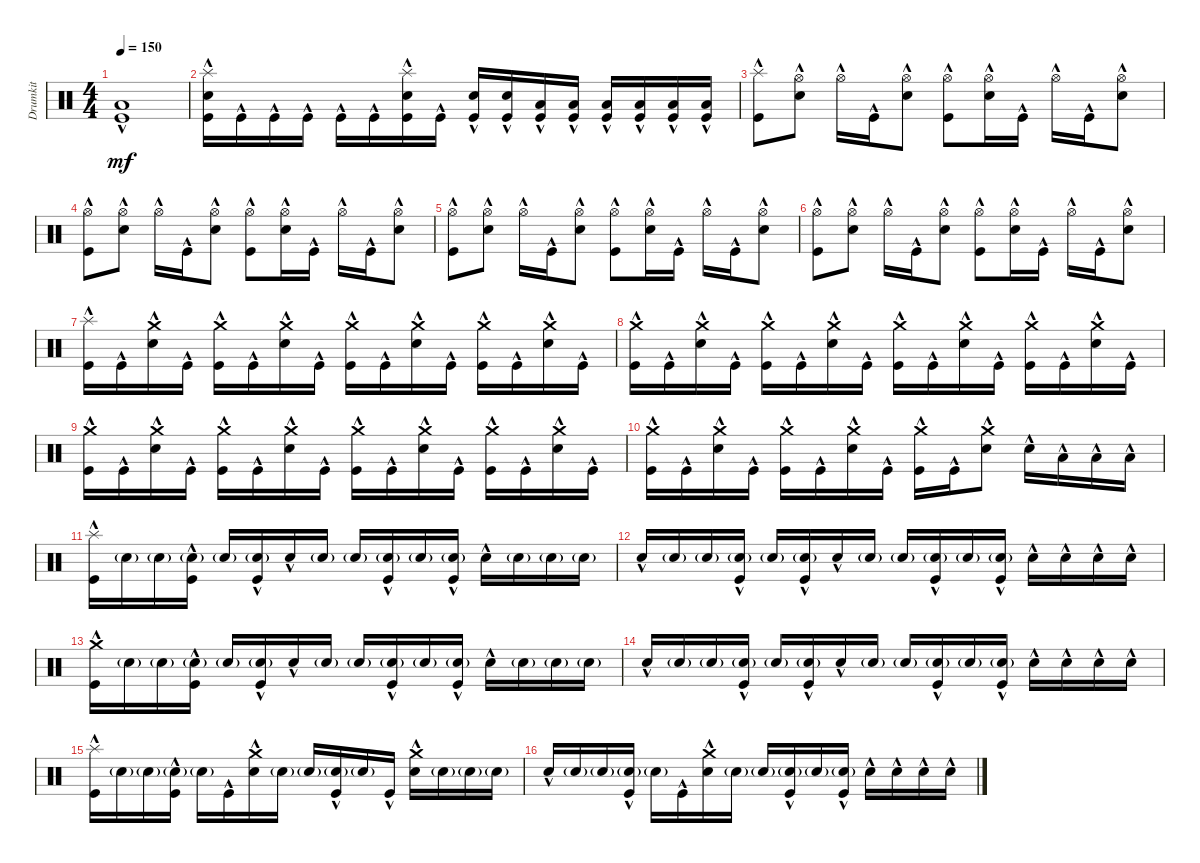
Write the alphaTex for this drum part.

\track ("Drumkit" "Drumkit") {instrument percussion}
\staff {score}
\articulation defaults
\ts (4 4)
\tempo 150
\clef neutral
\ks c
("Kick (hit)"{hac} "Low Floor Tom (hit)"{hac}).1{dy mf} |
("Kick (hit)"{hac} "Snare (hit) 2"{hac} "Splash (hit)"{hac}).16 "Kick (hit)"{hac}.16 "Kick (hit)"{hac}.16 "Kick (hit)"{hac}.16 "Kick (hit)"{hac}.16 "Kick (hit)"{hac}.16 ("Kick (hit)"{hac} "Snare (hit) 2"{hac} "Splash (hit)"{hac}).16 "Kick (hit)"{hac}.16 ("Kick (hit)"{hac} "Snare (hit) 2"{hac}).16 ("Kick (hit)"{hac} "Snare (hit) 2"{hac}).16 ("Kick (hit)"{hac} "Low Tom (hit)"{hac}).16 ("Kick (hit)"{hac} "Low Tom (hit)"{hac}).16 ("Kick (hit)"{hac} "Low Tom (hit)"{hac}).16 ("Kick (hit)"{hac} "Low Tom (hit)"{hac}).16 ("Kick (hit)"{hac} "Low Tom (hit)"{hac}).16 ("Kick (hit)"{hac} "Low Tom (hit)"{hac}).16 |
("Kick (hit)"{hac} "Splash (hit)"{hac}).8 ("Snare (hit) 2"{hac} "Hi-Hat (open)"{hac}).8 "Hi-Hat (open)"{hac}.16 "Kick (hit)"{hac}.16 ("Snare (hit) 2"{hac} "Hi-Hat (open)"{hac}).8 ("Kick (hit)"{hac} "Hi-Hat (open)"{hac}).8 ("Snare (hit) 2"{hac} "Hi-Hat (open)"{hac}).16 "Kick (hit)"{hac}.16 "Hi-Hat (open)"{hac}.16 "Kick (hit)"{hac}.16 ("Snare (hit) 2"{hac} "Hi-Hat (open)"{hac}).8 |
("Kick (hit)"{hac} "Hi-Hat (open)"{hac}).8 ("Snare (hit) 2"{hac} "Hi-Hat (open)"{hac}).8 "Hi-Hat (open)"{hac}.16 "Kick (hit)"{hac}.16 ("Snare (hit) 2"{hac} "Hi-Hat (open)"{hac}).8 ("Kick (hit)"{hac} "Hi-Hat (open)"{hac}).8 ("Snare (hit) 2"{hac} "Hi-Hat (open)"{hac}).16 "Kick (hit)"{hac}.16 "Hi-Hat (open)"{hac}.16 "Kick (hit)"{hac}.16 ("Snare (hit) 2"{hac} "Hi-Hat (open)"{hac}).8 |
("Kick (hit)"{hac} "Hi-Hat (open)"{hac}).8 ("Snare (hit) 2"{hac} "Hi-Hat (open)"{hac}).8 "Hi-Hat (open)"{hac}.16 "Kick (hit)"{hac}.16 ("Snare (hit) 2"{hac} "Hi-Hat (open)"{hac}).8 ("Kick (hit)"{hac} "Hi-Hat (open)"{hac}).8 ("Snare (hit) 2"{hac} "Hi-Hat (open)"{hac}).16 "Kick (hit)"{hac}.16 "Hi-Hat (open)"{hac}.16 "Kick (hit)"{hac}.16 ("Snare (hit) 2"{hac} "Hi-Hat (open)"{hac}).8 |
("Kick (hit)"{hac} "Hi-Hat (open)"{hac}).8 ("Snare (hit) 2"{hac} "Hi-Hat (open)"{hac}).8 "Hi-Hat (open)"{hac}.16 "Kick (hit)"{hac}.16 ("Snare (hit) 2"{hac} "Hi-Hat (open)"{hac}).8 ("Kick (hit)"{hac} "Hi-Hat (open)"{hac}).8 ("Snare (hit) 2"{hac} "Hi-Hat (open)"{hac}).16 "Kick (hit)"{hac}.16 "Hi-Hat (open)"{hac}.16 "Kick (hit)"{hac}.16 ("Snare (hit) 2"{hac} "Hi-Hat (open)"{hac}).8 |
("Kick (hit)"{hac} "Splash (hit)"{hac}).16 "Kick (hit)"{hac}.16 ("Snare (hit) 2"{hac} "Crash medium (hit)").16 "Kick (hit)"{hac}.16 ("Kick (hit)"{hac} "Crash medium (hit)").16 "Kick (hit)"{hac}.16 ("Snare (hit) 2"{hac} "Crash medium (hit)").16 "Kick (hit)"{hac}.16 ("Kick (hit)"{hac} "Crash medium (hit)").16 "Kick (hit)"{hac}.16 ("Snare (hit) 2"{hac} "Crash medium (hit)").16 "Kick (hit)"{hac}.16 ("Kick (hit)"{hac} "Crash medium (hit)").16 "Kick (hit)"{hac}.16 ("Snare (hit) 2"{hac} "Crash medium (hit)").16 "Kick (hit)"{hac}.16 |
("Kick (hit)"{hac} "Crash medium (hit)").16 "Kick (hit)"{hac}.16 ("Snare (hit) 2"{hac} "Crash medium (hit)").16 "Kick (hit)"{hac}.16 ("Kick (hit)"{hac} "Crash medium (hit)").16 "Kick (hit)"{hac}.16 ("Snare (hit) 2"{hac} "Crash medium (hit)").16 "Kick (hit)"{hac}.16 ("Kick (hit)"{hac} "Crash medium (hit)").16 "Kick (hit)"{hac}.16 ("Snare (hit) 2"{hac} "Crash medium (hit)").16 "Kick (hit)"{hac}.16 ("Kick (hit)"{hac} "Crash medium (hit)").16 "Kick (hit)"{hac}.16 ("Snare (hit) 2"{hac} "Crash medium (hit)").16 "Kick (hit)"{hac}.16 |
("Kick (hit)"{hac} "Crash medium (hit)").16 "Kick (hit)"{hac}.16 ("Snare (hit) 2"{hac} "Crash medium (hit)").16 "Kick (hit)"{hac}.16 ("Kick (hit)"{hac} "Crash medium (hit)").16 "Kick (hit)"{hac}.16 ("Snare (hit) 2"{hac} "Crash medium (hit)").16 "Kick (hit)"{hac}.16 ("Kick (hit)"{hac} "Crash medium (hit)").16 "Kick (hit)"{hac}.16 ("Snare (hit) 2"{hac} "Crash medium (hit)").16 "Kick (hit)"{hac}.16 ("Kick (hit)"{hac} "Crash medium (hit)").16 "Kick (hit)"{hac}.16 ("Snare (hit) 2"{hac} "Crash medium (hit)").16 "Kick (hit)"{hac}.16 |
("Kick (hit)"{hac} "Crash medium (hit)").16 "Kick (hit)"{hac}.16 ("Snare (hit) 2"{hac} "Crash medium (hit)").16 "Kick (hit)"{hac}.16 ("Kick (hit)"{hac} "Crash medium (hit)").16 "Kick (hit)"{hac}.16 ("Snare (hit) 2"{hac} "Crash medium (hit)").16 "Kick (hit)"{hac}.16 ("Kick (hit)"{hac} "Crash medium (hit)").16 "Kick (hit)"{hac}.16 ("Snare (hit) 2"{hac} "Crash medium (hit)").8 "Snare (hit) 2"{hac}.16 "Low Tom (hit)"{hac}.16 "Low Tom (hit)"{hac}.16 "Low Tom (hit)"{hac}.16 |
("Splash (hit)"{hac} "Kick (hit)"{hac}).16 "Snare (hit) 2"{g}.16 "Snare (hit) 2"{g}.16 ("Snare (hit) 2"{g} "Kick (hit)"{hac}).16 "Snare (hit) 2"{g}.16 ("Snare (hit) 2"{g} "Kick (hit)"{hac}).16 "Snare (hit) 2"{hac}.16 "Snare (hit) 2"{g}.16 "Snare (hit) 2"{g}.16 ("Snare (hit) 2"{g} "Kick (hit)"{hac}).16 "Snare (hit) 2"{g}.16 ("Snare (hit) 2"{g} "Kick (hit)"{hac}).16 "Snare (hit) 2"{hac}.16 "Snare (hit) 2"{g}.16 "Snare (hit) 2"{g}.16 "Snare (hit) 2"{g}.16 |
"Snare (hit) 2"{hac}.16 "Snare (hit) 2"{g}.16 "Snare (hit) 2"{g}.16 ("Snare (hit) 2"{g} "Kick (hit)"{hac}).16 "Snare (hit) 2"{g}.16 ("Snare (hit) 2"{g} "Kick (hit)"{hac}).16 "Snare (hit) 2"{hac}.16 "Snare (hit) 2"{g}.16 "Snare (hit) 2"{g}.16 ("Snare (hit) 2"{g} "Kick (hit)"{hac}).16 "Snare (hit) 2"{g}.16 ("Snare (hit) 2"{g} "Kick (hit)"{hac}).16 "Snare (hit) 2"{hac}.16 "Snare (hit) 2"{hac}.16 "Snare (hit) 2"{hac}.16 "Snare (hit) 2"{hac}.16 |
("Kick (hit)"{hac} "Crash medium (hit)").16 "Snare (hit) 2"{g}.16 "Snare (hit) 2"{g}.16 ("Snare (hit) 2"{g} "Kick (hit)"{hac}).16 "Snare (hit) 2"{g}.16 ("Snare (hit) 2"{g} "Kick (hit)"{hac}).16 "Snare (hit) 2"{hac}.16 "Snare (hit) 2"{g}.16 "Snare (hit) 2"{g}.16 ("Snare (hit) 2"{g} "Kick (hit)"{hac}).16 "Snare (hit) 2"{g}.16 ("Snare (hit) 2"{g} "Kick (hit)"{hac}).16 "Snare (hit) 2"{hac}.16 "Snare (hit) 2"{g}.16 "Snare (hit) 2"{g}.16 "Snare (hit) 2"{g}.16 |
"Snare (hit) 2"{hac}.16 "Snare (hit) 2"{g}.16 "Snare (hit) 2"{g}.16 ("Snare (hit) 2"{g} "Kick (hit)"{hac}).16 "Snare (hit) 2"{g}.16 ("Snare (hit) 2"{g} "Kick (hit)"{hac}).16 "Snare (hit) 2"{hac}.16 "Snare (hit) 2"{g}.16 "Snare (hit) 2"{g}.16 ("Snare (hit) 2"{g} "Kick (hit)"{hac}).16 "Snare (hit) 2"{g}.16 ("Snare (hit) 2"{g} "Kick (hit)"{hac}).16 "Snare (hit) 2"{hac}.16 "Snare (hit) 2"{hac}.16 "Snare (hit) 2"{hac}.16 "Snare (hit) 2"{hac}.16 |
("Splash (hit)"{hac} "Kick (hit)"{hac}).16 "Snare (hit) 2"{g}.16 "Snare (hit) 2"{g}.16 ("Snare (hit) 2"{g} "Kick (hit)"{hac}).16 "Snare (hit) 2"{g}.16 "Kick (hit)"{hac}.16 ("Snare (hit) 2"{hac} "Crash medium (hit)").16 "Snare (hit) 2"{g}.16 "Snare (hit) 2"{g}.16 ("Snare (hit) 2"{g} "Kick (hit)"{hac}).16 "Snare (hit) 2"{g}.16 "Kick (hit)"{hac}.16 ("Snare (hit) 2"{hac} "Crash medium (hit)").16 "Snare (hit) 2"{g}.16 "Snare (hit) 2"{g}.16 "Snare (hit) 2"{g}.16 |
"Snare (hit) 2"{hac}.16 "Snare (hit) 2"{g}.16 "Snare (hit) 2"{g}.16 ("Snare (hit) 2"{g} "Kick (hit)"{hac}).16 "Snare (hit) 2"{g}.16 "Kick (hit)"{hac}.16 ("Snare (hit) 2"{hac} "Crash medium (hit)").16 "Snare (hit) 2"{g}.16 "Snare (hit) 2"{g}.16 ("Snare (hit) 2"{g} "Kick (hit)"{hac}).16 "Snare (hit) 2"{g}.16 ("Snare (hit) 2"{g} "Kick (hit)"{hac}).16 "Snare (hit) 2"{hac}.16 "Snare (hit) 2"{hac}.16 "Snare (hit) 2"{hac}.16 "Snare (hit) 2"{hac}.16
